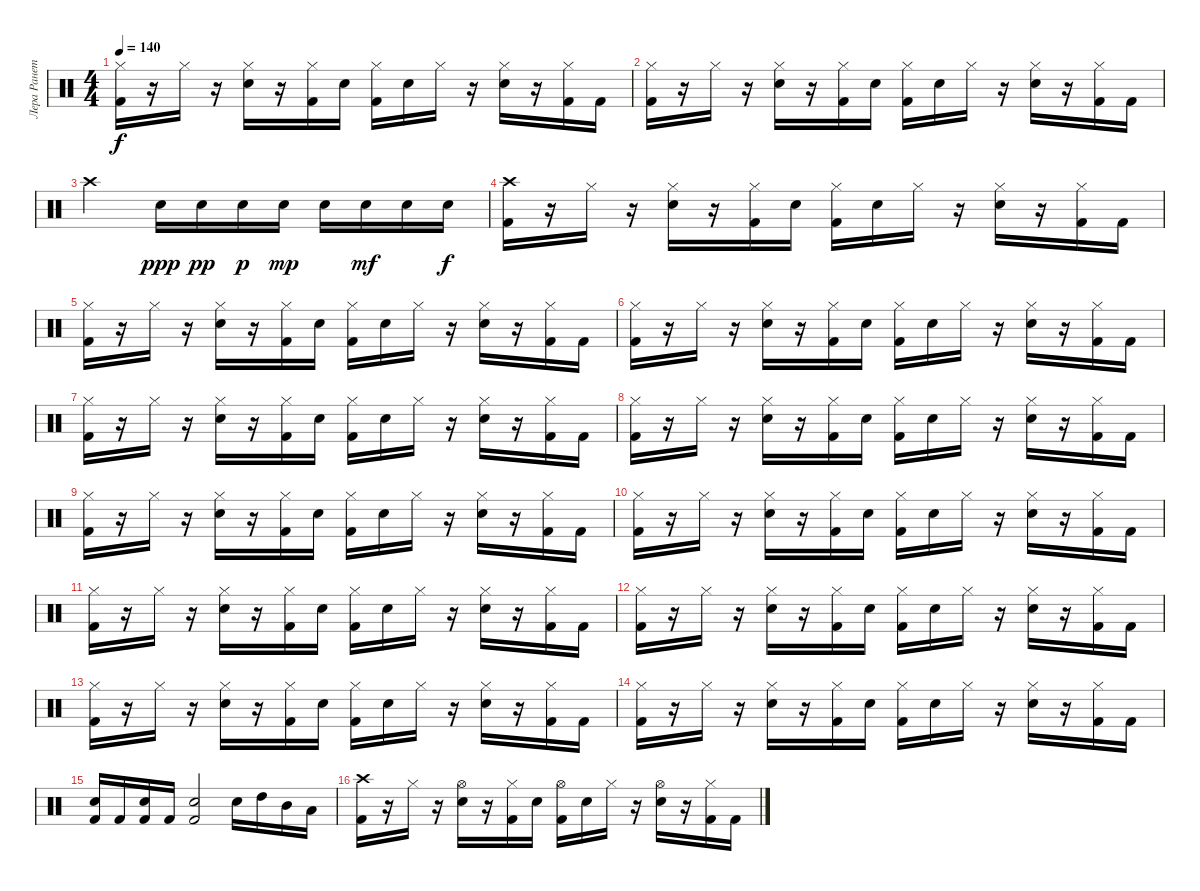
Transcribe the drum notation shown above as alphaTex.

\track ("Лера Ранетка" "Лера Ранет") {instrument percussion}
\staff {score}
\articulation defaults
\ts (4 4)
\tempo 140
\clef neutral
\ks c
("Hi-Hat (closed)" "Kick (hit) 2").16{dy f} r.16 "Hi-Hat (closed)".16 r.16 ("Hi-Hat (closed)" "Snare (hit) 2").16 r.16 ("Hi-Hat (closed)" "Kick (hit) 2").16 "Snare (hit) 2".16 ("Hi-Hat (closed)" "Kick (hit) 2").16 "Snare (hit) 2".16 "Hi-Hat (closed)".16 r.16 ("Hi-Hat (closed)" "Snare (hit) 2").16 r.16 ("Hi-Hat (closed)" "Kick (hit) 2").16 "Kick (hit) 2".16 |
("Hi-Hat (closed)" "Kick (hit) 2").16 r.16 "Hi-Hat (closed)".16 r.16 ("Hi-Hat (closed)" "Snare (hit) 2").16 r.16 ("Hi-Hat (closed)" "Kick (hit) 2").16 "Snare (hit) 2".16 ("Hi-Hat (closed)" "Kick (hit) 2").16 "Snare (hit) 2".16 "Hi-Hat (closed)".16 r.16 ("Hi-Hat (closed)" "Snare (hit) 2").16 r.16 ("Hi-Hat (closed)" "Kick (hit) 2").16 "Kick (hit) 2".16 |
"Crash high (hit)".2 "Snare (hit) 2".16{dy ppp} "Snare (hit) 2".16{dy pp} "Snare (hit) 2".16{dy p} "Snare (hit) 2".16{dy mp} "Snare (hit) 2".16 "Snare (hit) 2".16{dy mf} "Snare (hit) 2".16 "Snare (hit) 2".16{dy f} |
("Crash high (hit)" "Kick (hit) 2").16 r.16 "Hi-Hat (closed)".16 r.16 ("Hi-Hat (closed)" "Snare (hit) 2").16 r.16 ("Hi-Hat (closed)" "Kick (hit) 2").16 "Snare (hit) 2".16 ("Hi-Hat (closed)" "Kick (hit) 2").16 "Snare (hit) 2".16 "Hi-Hat (closed)".16 r.16 ("Hi-Hat (closed)" "Snare (hit) 2").16 r.16 ("Hi-Hat (closed)" "Kick (hit) 2").16 "Kick (hit) 2".16 |
("Hi-Hat (closed)" "Kick (hit) 2").16 r.16 "Hi-Hat (closed)".16 r.16 ("Hi-Hat (closed)" "Snare (hit) 2").16 r.16 ("Hi-Hat (closed)" "Kick (hit) 2").16 "Snare (hit) 2".16 ("Hi-Hat (closed)" "Kick (hit) 2").16 "Snare (hit) 2".16 "Hi-Hat (closed)".16 r.16 ("Hi-Hat (closed)" "Snare (hit) 2").16 r.16 ("Hi-Hat (closed)" "Kick (hit) 2").16 "Kick (hit) 2".16 |
("Hi-Hat (closed)" "Kick (hit) 2").16 r.16 "Hi-Hat (closed)".16 r.16 ("Hi-Hat (closed)" "Snare (hit) 2").16 r.16 ("Hi-Hat (closed)" "Kick (hit) 2").16 "Snare (hit) 2".16 ("Hi-Hat (closed)" "Kick (hit) 2").16 "Snare (hit) 2".16 "Hi-Hat (closed)".16 r.16 ("Hi-Hat (closed)" "Snare (hit) 2").16 r.16 ("Hi-Hat (closed)" "Kick (hit) 2").16 "Kick (hit) 2".16 |
("Hi-Hat (closed)" "Kick (hit) 2").16 r.16 "Hi-Hat (closed)".16 r.16 ("Hi-Hat (closed)" "Snare (hit) 2").16 r.16 ("Hi-Hat (closed)" "Kick (hit) 2").16 "Snare (hit) 2".16 ("Hi-Hat (closed)" "Kick (hit) 2").16 "Snare (hit) 2".16 "Hi-Hat (closed)".16 r.16 ("Hi-Hat (closed)" "Snare (hit) 2").16 r.16 ("Hi-Hat (closed)" "Kick (hit) 2").16 "Kick (hit) 2".16 |
("Hi-Hat (closed)" "Kick (hit) 2").16 r.16 "Hi-Hat (closed)".16 r.16 ("Hi-Hat (closed)" "Snare (hit) 2").16 r.16 ("Hi-Hat (closed)" "Kick (hit) 2").16 "Snare (hit) 2".16 ("Hi-Hat (closed)" "Kick (hit) 2").16 "Snare (hit) 2".16 "Hi-Hat (closed)".16 r.16 ("Hi-Hat (closed)" "Snare (hit) 2").16 r.16 ("Hi-Hat (closed)" "Kick (hit) 2").16 "Kick (hit) 2".16 |
("Hi-Hat (closed)" "Kick (hit) 2").16 r.16 "Hi-Hat (closed)".16 r.16 ("Hi-Hat (closed)" "Snare (hit) 2").16 r.16 ("Hi-Hat (closed)" "Kick (hit) 2").16 "Snare (hit) 2".16 ("Hi-Hat (closed)" "Kick (hit) 2").16 "Snare (hit) 2".16 "Hi-Hat (closed)".16 r.16 ("Hi-Hat (closed)" "Snare (hit) 2").16 r.16 ("Hi-Hat (closed)" "Kick (hit) 2").16 "Kick (hit) 2".16 |
("Hi-Hat (closed)" "Kick (hit) 2").16 r.16 "Hi-Hat (closed)".16 r.16 ("Hi-Hat (closed)" "Snare (hit) 2").16 r.16 ("Hi-Hat (closed)" "Kick (hit) 2").16 "Snare (hit) 2".16 ("Hi-Hat (closed)" "Kick (hit) 2").16 "Snare (hit) 2".16 "Hi-Hat (closed)".16 r.16 ("Hi-Hat (closed)" "Snare (hit) 2").16 r.16 ("Hi-Hat (closed)" "Kick (hit) 2").16 "Kick (hit) 2".16 |
("Hi-Hat (closed)" "Kick (hit) 2").16 r.16 "Hi-Hat (closed)".16 r.16 ("Hi-Hat (closed)" "Snare (hit) 2").16 r.16 ("Hi-Hat (closed)" "Kick (hit) 2").16 "Snare (hit) 2".16 ("Hi-Hat (closed)" "Kick (hit) 2").16 "Snare (hit) 2".16 "Hi-Hat (closed)".16 r.16 ("Hi-Hat (closed)" "Snare (hit) 2").16 r.16 ("Hi-Hat (closed)" "Kick (hit) 2").16 "Kick (hit) 2".16 |
("Hi-Hat (closed)" "Kick (hit) 2").16 r.16 "Hi-Hat (closed)".16 r.16 ("Hi-Hat (closed)" "Snare (hit) 2").16 r.16 ("Hi-Hat (closed)" "Kick (hit) 2").16 "Snare (hit) 2".16 ("Hi-Hat (closed)" "Kick (hit) 2").16 "Snare (hit) 2".16 "Hi-Hat (closed)".16 r.16 ("Hi-Hat (closed)" "Snare (hit) 2").16 r.16 ("Hi-Hat (closed)" "Kick (hit) 2").16 "Kick (hit) 2".16 |
("Hi-Hat (closed)" "Kick (hit) 2").16 r.16 "Hi-Hat (closed)".16 r.16 ("Hi-Hat (closed)" "Snare (hit) 2").16 r.16 ("Hi-Hat (closed)" "Kick (hit) 2").16 "Snare (hit) 2".16 ("Hi-Hat (closed)" "Kick (hit) 2").16 "Snare (hit) 2".16 "Hi-Hat (closed)".16 r.16 ("Hi-Hat (closed)" "Snare (hit) 2").16 r.16 ("Hi-Hat (closed)" "Kick (hit) 2").16 "Kick (hit) 2".16 |
("Hi-Hat (closed)" "Kick (hit) 2").16 r.16 "Hi-Hat (closed)".16 r.16 ("Hi-Hat (closed)" "Snare (hit) 2").16 r.16 ("Hi-Hat (closed)" "Kick (hit) 2").16 "Snare (hit) 2".16 ("Hi-Hat (closed)" "Kick (hit) 2").16 "Snare (hit) 2".16 "Hi-Hat (closed)".16 r.16 ("Hi-Hat (closed)" "Snare (hit) 2").16 r.16 ("Hi-Hat (closed)" "Kick (hit) 2").16 "Kick (hit) 2".16 |
("Kick (hit) 2" "Snare (hit) 2").16 "Kick (hit) 2".16 ("Kick (hit) 2" "Snare (hit) 2").16 "Kick (hit) 2".16 ("Kick (hit) 2" "Snare (hit) 2").2 "Electric Snare (hit)".16 "High Tom (hit)".16 "Mid Tom (hit)".16 "Low Tom (hit)".16 |
("Crash high (hit)" "Kick (hit) 2").16 r.16 "Hi-Hat (closed)".16 r.16 ("Hi-Hat (open)" "Snare (hit) 2").16 r.16 ("Hi-Hat (closed)" "Kick (hit) 2").16 "Snare (hit) 2".16 ("Hi-Hat (open)" "Kick (hit) 2").16 "Snare (hit) 2".16 "Hi-Hat (closed)".16 r.16 ("Hi-Hat (open)" "Snare (hit) 2").16 r.16 ("Hi-Hat (closed)" "Kick (hit) 2").16 "Kick (hit) 2".16
